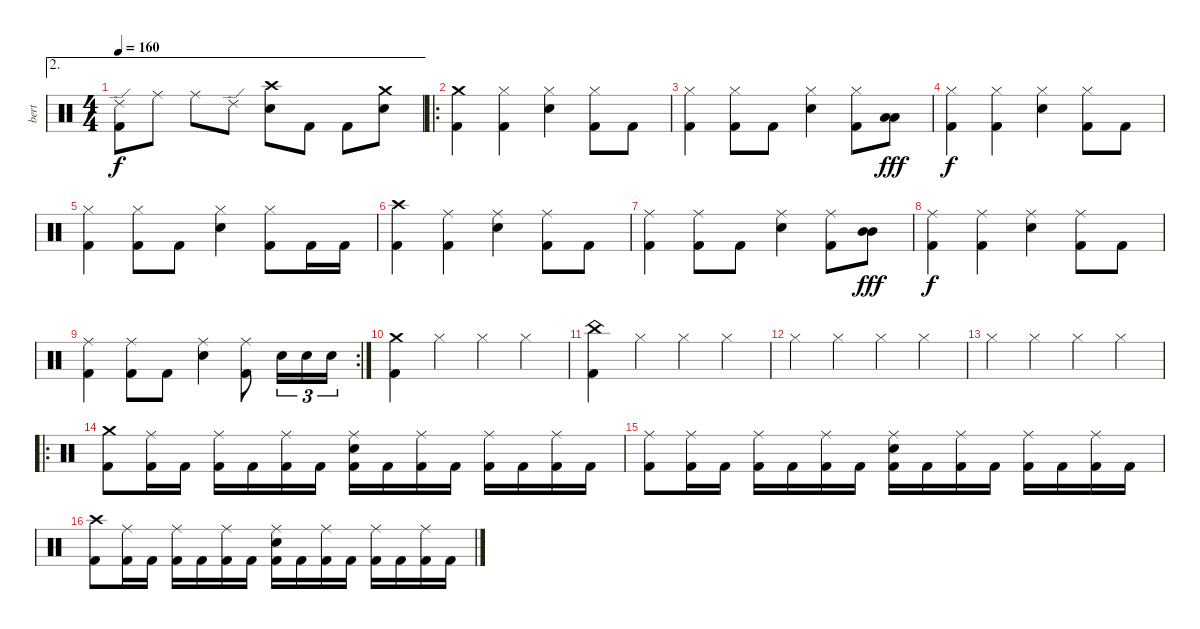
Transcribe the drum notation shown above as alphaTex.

\track ("bert" "bert") {instrument percussion}
\staff {score}
\articulation defaults
\ae 2
\ts (4 4)
\tempo 160
\clef neutral
\ks c
("Ride (edge) 2" "Kick (hit) 2").8{dy f} "Ride (middle)".8 "Ride (middle)".8 "Ride (edge) 2".8 ("Crash high (hit)" "Snare (hit) 2").8 "Kick (hit) 2".8 "Kick (hit) 2".8 ("Crash medium (hit)" "Snare (hit) 2").8 |
\ro
("Crash medium (hit)" "Kick (hit) 2").4 ("Hi-Hat (closed)" "Kick (hit) 2").4 ("Hi-Hat (closed)" "Snare (hit) 2").4 ("Hi-Hat (closed)" "Kick (hit) 2").8 "Kick (hit) 2".8 |
("Hi-Hat (closed)" "Kick (hit) 2").4 ("Hi-Hat (closed)" "Kick (hit) 2").8 "Kick (hit) 2".8 ("Hi-Hat (closed)" "Snare (hit) 2").4 ("Hi-Hat (closed)" "Kick (hit) 2").8 ("Low Tom (hit)" "Low Tom (hit)").8{dy fff} |
("Hi-Hat (closed)" "Kick (hit) 2").4{dy f} ("Hi-Hat (closed)" "Kick (hit) 2").4 ("Hi-Hat (closed)" "Snare (hit) 2").4 ("Hi-Hat (closed)" "Kick (hit) 2").8 "Kick (hit) 2".8 |
("Hi-Hat (closed)" "Kick (hit) 2").4 ("Hi-Hat (closed)" "Kick (hit) 2").8 "Kick (hit) 2".8 ("Hi-Hat (closed)" "Snare (hit) 2").4 ("Hi-Hat (closed)" "Kick (hit) 2").8 "Kick (hit) 2".16 "Kick (hit) 2".16 |
("Crash high (hit)" "Kick (hit) 2").4 ("Ride (middle)" "Kick (hit) 2").4 ("Ride (middle)" "Snare (hit) 2").4 ("Ride (middle)" "Kick (hit) 2").8 "Kick (hit) 2".8 |
("Ride (middle)" "Kick (hit) 2").4 ("Ride (middle)" "Kick (hit) 2").8 "Kick (hit) 2".8 ("Ride (middle)" "Snare (hit) 2").4 ("Ride (middle)" "Kick (hit) 2").8 ("Mid Tom (hit)" "Mid Tom (hit)").8{dy fff} |
("Ride (middle)" "Kick (hit) 2").4{dy f} ("Ride (middle)" "Kick (hit) 2").4 ("Ride (middle)" "Snare (hit) 2").4 ("Ride (middle)" "Kick (hit) 2").8 "Kick (hit) 2".8 |
\rc 2
("Ride (middle)" "Kick (hit) 2").4 ("Ride (middle)" "Kick (hit) 2").8 "Kick (hit) 2".8 ("Ride (middle)" "Snare (hit) 2").4 ("Ride (middle)" "Kick (hit) 2").8 "Snare (hit) 2".16{tu (3 2)} "Snare (hit) 2".16{tu (3 2)} "Snare (hit) 2".16{tu (3 2)} |
("Crash medium (hit)" "Kick (hit) 2").4 "Hi-Hat (closed)".4 "Hi-Hat (closed)".4 "Hi-Hat (closed)".4 |
("China (hit)" "Kick (hit) 2").4 "Hi-Hat (closed)".4 "Hi-Hat (closed)".4 "Hi-Hat (closed)".4 |
"Hi-Hat (closed)".4 "Hi-Hat (closed)".4 "Hi-Hat (closed)".4 "Hi-Hat (closed)".4 |
"Hi-Hat (closed)".4 "Hi-Hat (closed)".4 "Hi-Hat (closed)".4 "Hi-Hat (closed)".4 |
\ro
("Crash medium (hit)" "Kick (hit) 2").8 ("Ride (middle)" "Kick (hit) 2").16 "Kick (hit) 2".16 ("Ride (middle)" "Kick (hit) 2").16 "Kick (hit) 2".16 ("Ride (middle)" "Kick (hit) 2").16 "Kick (hit) 2".16 ("Ride (middle)" "Snare (hit) 2" "Kick (hit) 2").16 "Kick (hit) 2".16 ("Ride (middle)" "Kick (hit) 2").16 "Kick (hit) 2".16 ("Ride (middle)" "Kick (hit) 2").16 "Kick (hit) 2".16 ("Ride (middle)" "Kick (hit) 2").16 "Kick (hit) 2".16 |
("Ride (middle)" "Kick (hit) 2").8 ("Ride (middle)" "Kick (hit) 2").16 "Kick (hit) 2".16 ("Ride (middle)" "Kick (hit) 2").16 "Kick (hit) 2".16 ("Ride (middle)" "Kick (hit) 2").16 "Kick (hit) 2".16 ("Ride (middle)" "Snare (hit) 2" "Kick (hit) 2").16 "Kick (hit) 2".16 ("Ride (middle)" "Kick (hit) 2").16 "Kick (hit) 2".16 ("Ride (middle)" "Kick (hit) 2").16 "Kick (hit) 2".16 ("Ride (middle)" "Kick (hit) 2").16 "Kick (hit) 2".16 |
("Crash high (hit)" "Kick (hit) 2").8 ("Ride (middle)" "Kick (hit) 2").16 "Kick (hit) 2".16 ("Ride (middle)" "Kick (hit) 2").16 "Kick (hit) 2".16 ("Ride (middle)" "Kick (hit) 2").16 "Kick (hit) 2".16 ("Ride (middle)" "Snare (hit) 2" "Kick (hit) 2").16 "Kick (hit) 2".16 ("Ride (middle)" "Kick (hit) 2").16 "Kick (hit) 2".16 ("Ride (middle)" "Kick (hit) 2").16 "Kick (hit) 2".16 ("Ride (middle)" "Kick (hit) 2").16 "Kick (hit) 2".16
